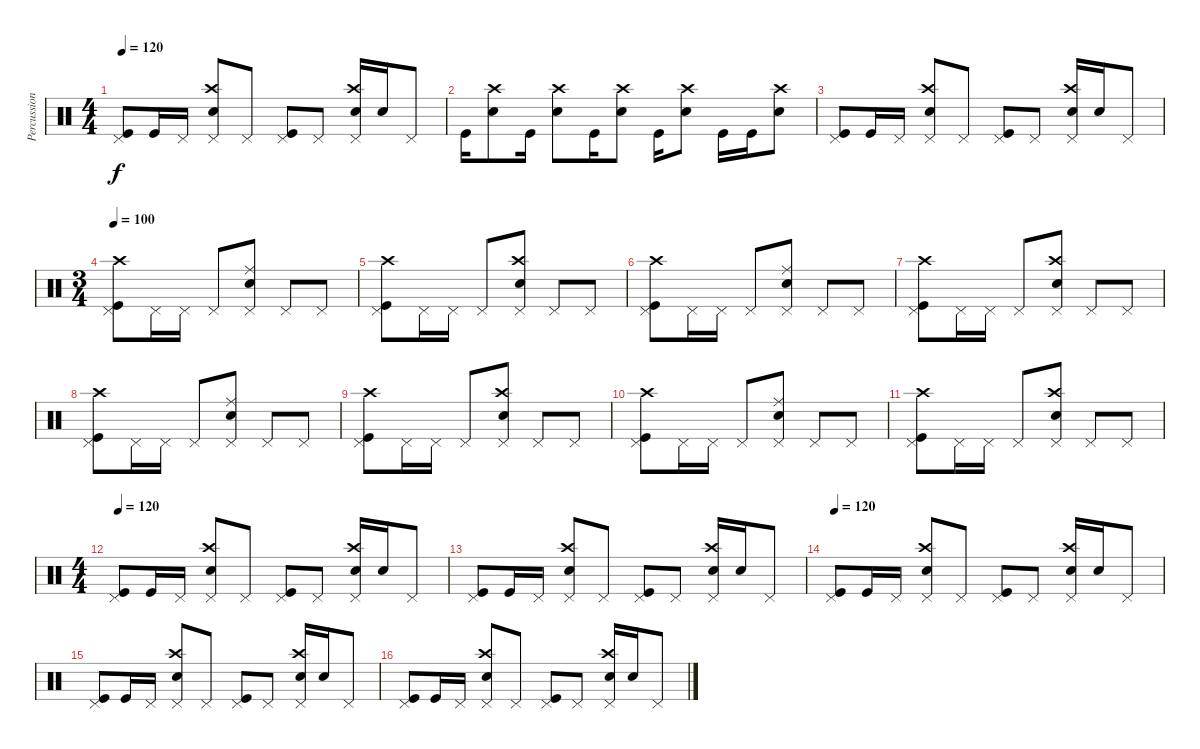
\track ("Percussion" "Percussion") {instrument percussion}
\staff {score}
\articulation defaults
\ts (4 4)
\tempo 120
\clef neutral
\ks c
("Pedal Hi-Hat (hit)" "Kick (hit)").8{dy f} "Kick (hit)".16 "Pedal Hi-Hat (hit)".16 ("Crash high (hit)" "Pedal Hi-Hat (hit)" "Electric Snare (hit)").8 "Pedal Hi-Hat (hit)".8 ("Pedal Hi-Hat (hit)" "Kick (hit)").8 "Pedal Hi-Hat (hit)".8 ("Crash high (hit)" "Pedal Hi-Hat (hit)" "Electric Snare (hit)").16 "Electric Snare (hit)".16 "Pedal Hi-Hat (hit)".8 |
"Kick (hit)".16 ("Crash high (hit)" "Electric Snare (hit)").8 "Kick (hit)".16 ("Crash high (hit)" "Electric Snare (hit)").8 "Kick (hit)".16 ("Crash high (hit)" "Electric Snare (hit)").8 "Kick (hit)".16 ("Crash high (hit)" "Electric Snare (hit)").8 "Kick (hit)".16 "Kick (hit)".16 ("Crash high (hit)" "Electric Snare (hit)").8 |
("Pedal Hi-Hat (hit)" "Kick (hit)").8 "Kick (hit)".16 "Pedal Hi-Hat (hit)".16 ("Crash high (hit)" "Pedal Hi-Hat (hit)" "Electric Snare (hit)").8 "Pedal Hi-Hat (hit)".8 ("Pedal Hi-Hat (hit)" "Kick (hit)").8 "Pedal Hi-Hat (hit)".8 ("Crash high (hit)" "Pedal Hi-Hat (hit)" "Electric Snare (hit)").16 "Electric Snare (hit)".16 "Pedal Hi-Hat (hit)".8 |
\ts (3 4)
\tempo 100
("Pedal Hi-Hat (hit)" "Crash high (hit)" "Kick (hit)").8 "Pedal Hi-Hat (hit)".16 "Pedal Hi-Hat (hit)".16 "Pedal Hi-Hat (hit)".8 ("Pedal Hi-Hat (hit)" "Electric Snare (hit)" "Ride (middle)").8 "Pedal Hi-Hat (hit)".8 "Pedal Hi-Hat (hit)".8 |
("Pedal Hi-Hat (hit)" "Crash high (hit)" "Kick (hit)").8 "Pedal Hi-Hat (hit)".16 "Pedal Hi-Hat (hit)".16 "Pedal Hi-Hat (hit)".8 ("Pedal Hi-Hat (hit)" "Electric Snare (hit)" "Crash high (hit)").8 "Pedal Hi-Hat (hit)".8 "Pedal Hi-Hat (hit)".8 |
("Pedal Hi-Hat (hit)" "Crash high (hit)" "Kick (hit)").8 "Pedal Hi-Hat (hit)".16 "Pedal Hi-Hat (hit)".16 "Pedal Hi-Hat (hit)".8 ("Pedal Hi-Hat (hit)" "Electric Snare (hit)" "Ride (middle)").8 "Pedal Hi-Hat (hit)".8 "Pedal Hi-Hat (hit)".8 |
("Pedal Hi-Hat (hit)" "Crash high (hit)" "Kick (hit)").8 "Pedal Hi-Hat (hit)".16 "Pedal Hi-Hat (hit)".16 "Pedal Hi-Hat (hit)".8 ("Pedal Hi-Hat (hit)" "Electric Snare (hit)" "Crash high (hit)").8 "Pedal Hi-Hat (hit)".8 "Pedal Hi-Hat (hit)".8 |
("Pedal Hi-Hat (hit)" "Crash high (hit)" "Kick (hit)").8 "Pedal Hi-Hat (hit)".16 "Pedal Hi-Hat (hit)".16 "Pedal Hi-Hat (hit)".8 ("Pedal Hi-Hat (hit)" "Electric Snare (hit)" "Ride (middle)").8 "Pedal Hi-Hat (hit)".8 "Pedal Hi-Hat (hit)".8 |
("Pedal Hi-Hat (hit)" "Crash high (hit)" "Kick (hit)").8 "Pedal Hi-Hat (hit)".16 "Pedal Hi-Hat (hit)".16 "Pedal Hi-Hat (hit)".8 ("Pedal Hi-Hat (hit)" "Electric Snare (hit)" "Crash high (hit)").8 "Pedal Hi-Hat (hit)".8 "Pedal Hi-Hat (hit)".8 |
("Pedal Hi-Hat (hit)" "Crash high (hit)" "Kick (hit)").8 "Pedal Hi-Hat (hit)".16 "Pedal Hi-Hat (hit)".16 "Pedal Hi-Hat (hit)".8 ("Pedal Hi-Hat (hit)" "Electric Snare (hit)" "Ride (middle)").8 "Pedal Hi-Hat (hit)".8 "Pedal Hi-Hat (hit)".8 |
("Pedal Hi-Hat (hit)" "Crash high (hit)" "Kick (hit)").8 "Pedal Hi-Hat (hit)".16 "Pedal Hi-Hat (hit)".16 "Pedal Hi-Hat (hit)".8 ("Pedal Hi-Hat (hit)" "Electric Snare (hit)" "Crash high (hit)").8 "Pedal Hi-Hat (hit)".8 "Pedal Hi-Hat (hit)".8 |
\ts (4 4)
\tempo 120
("Pedal Hi-Hat (hit)" "Kick (hit)").8 "Kick (hit)".16 "Pedal Hi-Hat (hit)".16 ("Crash high (hit)" "Pedal Hi-Hat (hit)" "Electric Snare (hit)").8 "Pedal Hi-Hat (hit)".8 ("Pedal Hi-Hat (hit)" "Kick (hit)").8 "Pedal Hi-Hat (hit)".8 ("Crash high (hit)" "Pedal Hi-Hat (hit)" "Electric Snare (hit)").16 "Electric Snare (hit)".16 "Pedal Hi-Hat (hit)".8 |
("Pedal Hi-Hat (hit)" "Kick (hit)").8 "Kick (hit)".16 "Pedal Hi-Hat (hit)".16 ("Crash high (hit)" "Pedal Hi-Hat (hit)" "Electric Snare (hit)").8 "Pedal Hi-Hat (hit)".8 ("Pedal Hi-Hat (hit)" "Kick (hit)").8 "Pedal Hi-Hat (hit)".8 ("Crash high (hit)" "Pedal Hi-Hat (hit)" "Electric Snare (hit)").16 "Electric Snare (hit)".16 "Pedal Hi-Hat (hit)".8 |
\tempo 120
("Pedal Hi-Hat (hit)" "Kick (hit)").8 "Kick (hit)".16 "Pedal Hi-Hat (hit)".16 ("Crash high (hit)" "Pedal Hi-Hat (hit)" "Electric Snare (hit)").8 "Pedal Hi-Hat (hit)".8 ("Pedal Hi-Hat (hit)" "Kick (hit)").8 "Pedal Hi-Hat (hit)".8 ("Crash high (hit)" "Pedal Hi-Hat (hit)" "Electric Snare (hit)").16 "Electric Snare (hit)".16 "Pedal Hi-Hat (hit)".8 |
("Pedal Hi-Hat (hit)" "Kick (hit)").8 "Kick (hit)".16 "Pedal Hi-Hat (hit)".16 ("Crash high (hit)" "Pedal Hi-Hat (hit)" "Electric Snare (hit)").8 "Pedal Hi-Hat (hit)".8 ("Pedal Hi-Hat (hit)" "Kick (hit)").8 "Pedal Hi-Hat (hit)".8 ("Crash high (hit)" "Pedal Hi-Hat (hit)" "Electric Snare (hit)").16 "Electric Snare (hit)".16 "Pedal Hi-Hat (hit)".8 |
("Pedal Hi-Hat (hit)" "Kick (hit)").8 "Kick (hit)".16 "Pedal Hi-Hat (hit)".16 ("Crash high (hit)" "Pedal Hi-Hat (hit)" "Electric Snare (hit)").8 "Pedal Hi-Hat (hit)".8 ("Pedal Hi-Hat (hit)" "Kick (hit)").8 "Pedal Hi-Hat (hit)".8 ("Crash high (hit)" "Pedal Hi-Hat (hit)" "Electric Snare (hit)").16 "Electric Snare (hit)".16 "Pedal Hi-Hat (hit)".8
